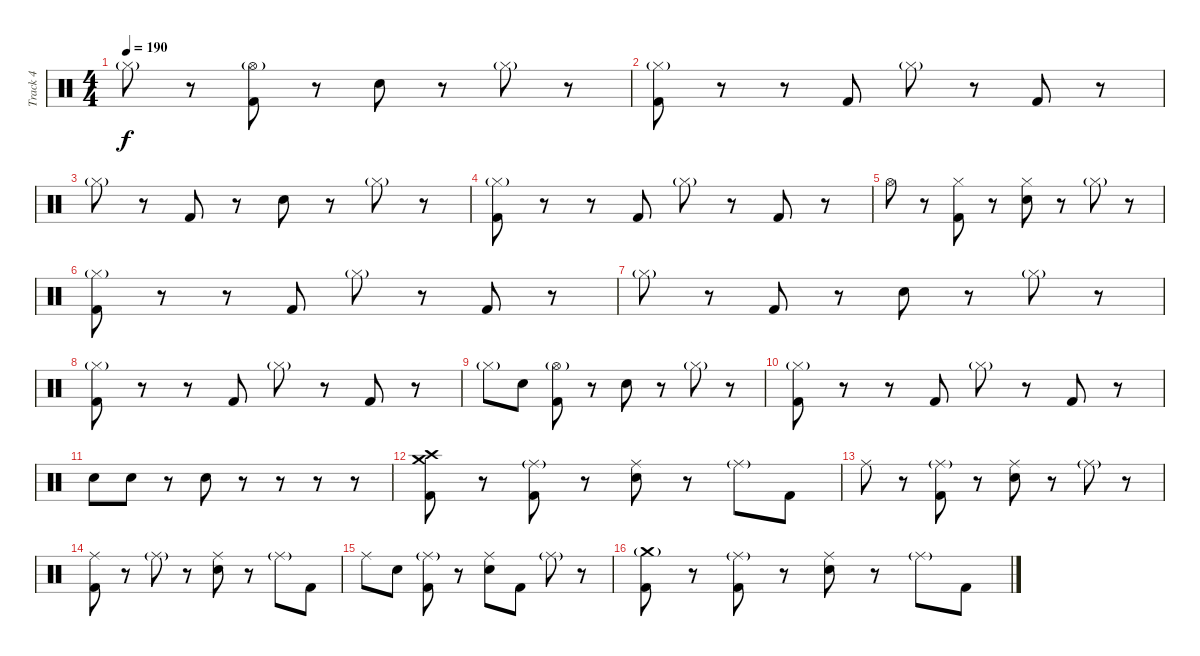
\track ("Track 4" "Track 4") {instrument percussion}
\staff {score}
\articulation defaults
\ts (4 4)
\tempo 190
\clef neutral
\ks c "Hi-Hat (closed)"{g}.8{dy f}
r.8 ("Hi-Hat (open)"{g} "Kick (hit) 2").8 r.8 "Electric Snare (hit)".8 r.8 "Hi-Hat (closed)"{g}.8 r.8 |
("Hi-Hat (closed)"{g} "Kick (hit) 2").8 r.8 r.8 "Kick (hit) 2".8 "Hi-Hat (closed)"{g}.8 r.8 "Kick (hit) 2".8 r.8 |
"Hi-Hat (closed)"{g}.8 r.8 "Kick (hit) 2".8 r.8 "Electric Snare (hit)".8 r.8 "Hi-Hat (closed)"{g}.8 r.8 |
("Hi-Hat (closed)"{g} "Kick (hit) 2").8 r.8 r.8 "Kick (hit) 2".8 "Hi-Hat (closed)"{g}.8 r.8 "Kick (hit) 2".8 r.8 |
"Hi-Hat (open)".8 r.8 ("Hi-Hat (closed)" "Kick (hit) 2").8 r.8 ("Hi-Hat (closed)" "Electric Snare (hit)").8 r.8 "Hi-Hat (closed)"{g}.8 r.8 |
("Hi-Hat (closed)"{g} "Kick (hit) 2").8 r.8 r.8 "Kick (hit) 2".8 "Hi-Hat (closed)"{g}.8 r.8 "Kick (hit) 2".8 r.8 |
"Hi-Hat (closed)"{g}.8 r.8 "Kick (hit) 2".8 r.8 "Electric Snare (hit)".8 r.8 "Hi-Hat (closed)"{g}.8 r.8 |
("Hi-Hat (closed)"{g} "Kick (hit) 2").8 r.8 r.8 "Kick (hit) 2".8 "Hi-Hat (closed)"{g}.8 r.8 "Kick (hit) 2".8 r.8 |
"Hi-Hat (closed)"{g}.8 "Electric Snare (hit)".8 ("Hi-Hat (open)"{g} "Kick (hit) 2").8 r.8 "Electric Snare (hit)".8 r.8 "Hi-Hat (closed)"{g}.8 r.8 |
("Hi-Hat (closed)"{g} "Kick (hit) 2").8 r.8 r.8 "Kick (hit) 2".8 "Hi-Hat (closed)"{g}.8 r.8 "Kick (hit) 2".8 r.8 |
"Electric Snare (hit)".8 "Electric Snare (hit)".8 r.8 "Electric Snare (hit)".8 r.8 r.8 r.8 r.8 |
("Crash medium (hit)" "Crash high (hit)" "Kick (hit) 2").8 r.8 ("Ride (middle)"{g} "Kick (hit) 2").8 r.8 ("Ride (middle)" "Electric Snare (hit)").8 r.8 "Ride (middle)"{g}.8 "Kick (hit) 2".8 |
"Ride (middle)".8 r.8 ("Ride (middle)"{g} "Kick (hit) 2").8 r.8 ("Ride (middle)" "Electric Snare (hit)").8 r.8 "Ride (middle)"{g}.8 r.8 |
("Ride (middle)" "Kick (hit) 2").8 r.8 "Ride (middle)"{g}.8 r.8 ("Ride (middle)" "Electric Snare (hit)").8 r.8 "Ride (middle)"{g}.8 "Kick (hit) 2".8 |
"Ride (middle)".8 "Electric Snare (hit)".8 ("Ride (middle)"{g} "Kick (hit) 2").8 r.8 ("Ride (middle)" "Electric Snare (hit)").8 "Kick (hit) 2".8 "Ride (middle)"{g}.8 r.8 |
("Crash medium (hit)"{g} "Kick (hit) 2").8 r.8 ("Ride (middle)"{g} "Kick (hit) 2").8 r.8 ("Ride (middle)" "Electric Snare (hit)").8 r.8 "Ride (middle)"{g}.8 "Kick (hit) 2".8
